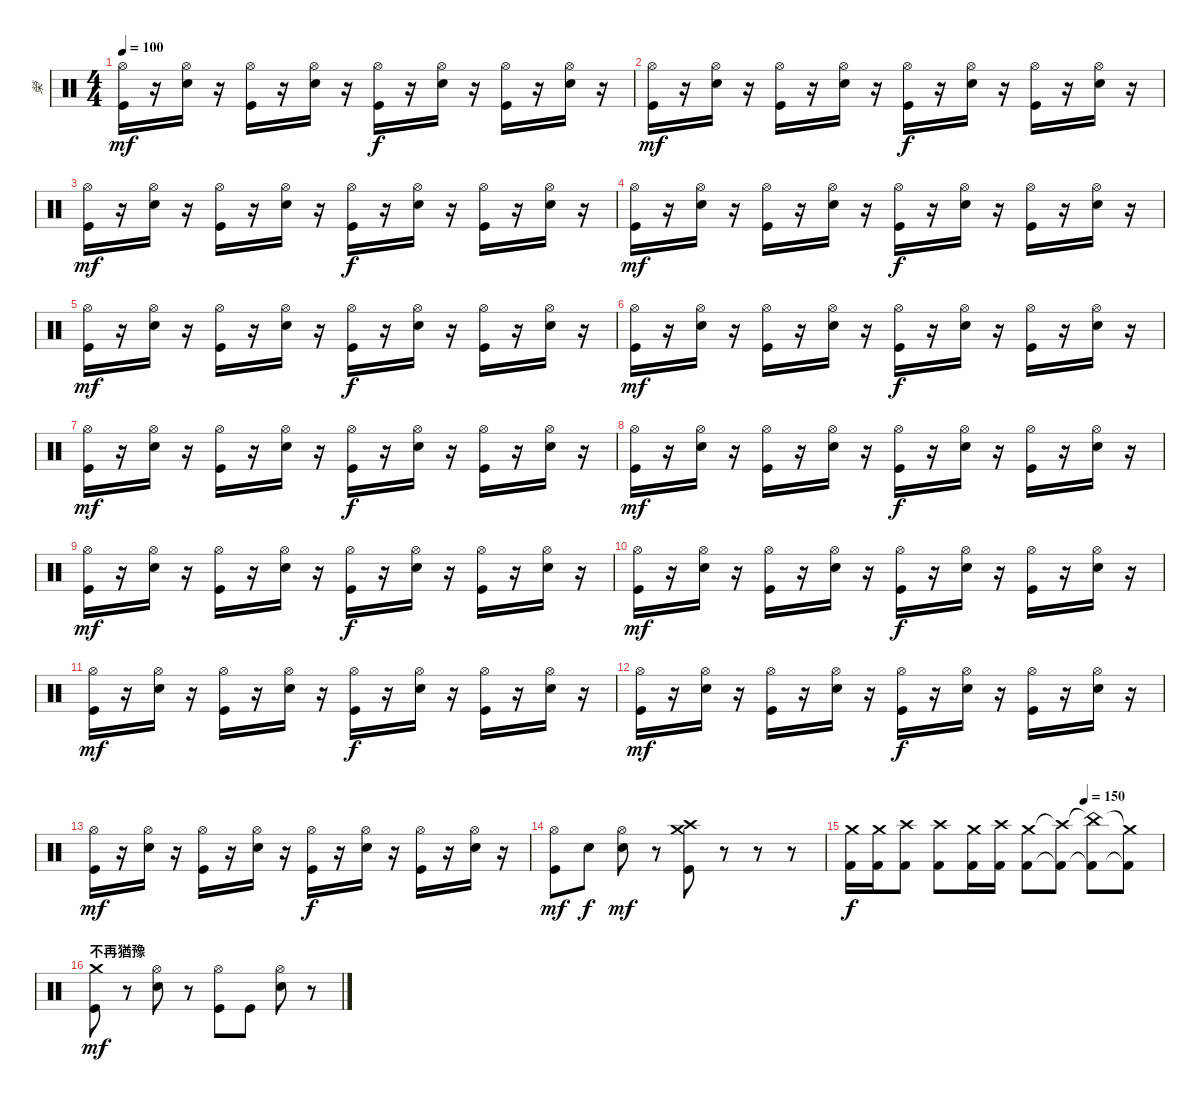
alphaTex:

\track ("榮" "榮") {instrument percussion}
\staff {score}
\articulation defaults
\ts (4 4)
\tempo 100
\clef neutral
\ks c
("Hi-Hat (open)" "Kick (hit)").16{dy mf} r.16 ("Hi-Hat (open)" "Snare (hit) 2").16 r.16 ("Hi-Hat (open)" "Kick (hit)").16 r.16 ("Hi-Hat (open)" "Snare (hit) 2").16 r.16 ("Hi-Hat (open)" "Kick (hit)").16{dy f} r.16 ("Hi-Hat (open)" "Snare (hit) 2").16 r.16 ("Hi-Hat (open)" "Kick (hit)").16 r.16 ("Hi-Hat (open)" "Snare (hit) 2").16 r.16 |
("Hi-Hat (open)" "Kick (hit)").16{dy mf} r.16 ("Hi-Hat (open)" "Snare (hit) 2").16 r.16 ("Hi-Hat (open)" "Kick (hit)").16 r.16 ("Hi-Hat (open)" "Snare (hit) 2").16 r.16 ("Hi-Hat (open)" "Kick (hit)").16{dy f} r.16 ("Hi-Hat (open)" "Snare (hit) 2").16 r.16 ("Hi-Hat (open)" "Kick (hit)").16 r.16 ("Hi-Hat (open)" "Snare (hit) 2").16 r.16 |
("Hi-Hat (open)" "Kick (hit)").16{dy mf} r.16 ("Hi-Hat (open)" "Snare (hit) 2").16 r.16 ("Hi-Hat (open)" "Kick (hit)").16 r.16 ("Hi-Hat (open)" "Snare (hit) 2").16 r.16 ("Hi-Hat (open)" "Kick (hit)").16{dy f} r.16 ("Hi-Hat (open)" "Snare (hit) 2").16 r.16 ("Hi-Hat (open)" "Kick (hit)").16 r.16 ("Hi-Hat (open)" "Snare (hit) 2").16 r.16 |
("Hi-Hat (open)" "Kick (hit)").16{dy mf} r.16 ("Hi-Hat (open)" "Snare (hit) 2").16 r.16 ("Hi-Hat (open)" "Kick (hit)").16 r.16 ("Hi-Hat (open)" "Snare (hit) 2").16 r.16 ("Hi-Hat (open)" "Kick (hit)").16{dy f} r.16 ("Hi-Hat (open)" "Snare (hit) 2").16 r.16 ("Hi-Hat (open)" "Kick (hit)").16 r.16 ("Hi-Hat (open)" "Snare (hit) 2").16 r.16 |
("Hi-Hat (open)" "Kick (hit)").16{dy mf} r.16 ("Hi-Hat (open)" "Snare (hit) 2").16 r.16 ("Hi-Hat (open)" "Kick (hit)").16 r.16 ("Hi-Hat (open)" "Snare (hit) 2").16 r.16 ("Hi-Hat (open)" "Kick (hit)").16{dy f} r.16 ("Hi-Hat (open)" "Snare (hit) 2").16 r.16 ("Hi-Hat (open)" "Kick (hit)").16 r.16 ("Hi-Hat (open)" "Snare (hit) 2").16 r.16 |
("Hi-Hat (open)" "Kick (hit)").16{dy mf} r.16 ("Hi-Hat (open)" "Snare (hit) 2").16 r.16 ("Hi-Hat (open)" "Kick (hit)").16 r.16 ("Hi-Hat (open)" "Snare (hit) 2").16 r.16 ("Hi-Hat (open)" "Kick (hit)").16{dy f} r.16 ("Hi-Hat (open)" "Snare (hit) 2").16 r.16 ("Hi-Hat (open)" "Kick (hit)").16 r.16 ("Hi-Hat (open)" "Snare (hit) 2").16 r.16 |
("Hi-Hat (open)" "Kick (hit)").16{dy mf} r.16 ("Hi-Hat (open)" "Snare (hit) 2").16 r.16 ("Hi-Hat (open)" "Kick (hit)").16 r.16 ("Hi-Hat (open)" "Snare (hit) 2").16 r.16 ("Hi-Hat (open)" "Kick (hit)").16{dy f} r.16 ("Hi-Hat (open)" "Snare (hit) 2").16 r.16 ("Hi-Hat (open)" "Kick (hit)").16 r.16 ("Hi-Hat (open)" "Snare (hit) 2").16 r.16 |
("Hi-Hat (open)" "Kick (hit)").16{dy mf} r.16 ("Hi-Hat (open)" "Snare (hit) 2").16 r.16 ("Hi-Hat (open)" "Kick (hit)").16 r.16 ("Hi-Hat (open)" "Snare (hit) 2").16 r.16 ("Hi-Hat (open)" "Kick (hit)").16{dy f} r.16 ("Hi-Hat (open)" "Snare (hit) 2").16 r.16 ("Hi-Hat (open)" "Kick (hit)").16 r.16 ("Hi-Hat (open)" "Snare (hit) 2").16 r.16 |
("Hi-Hat (open)" "Kick (hit)").16{dy mf} r.16 ("Hi-Hat (open)" "Snare (hit) 2").16 r.16 ("Hi-Hat (open)" "Kick (hit)").16 r.16 ("Hi-Hat (open)" "Snare (hit) 2").16 r.16 ("Hi-Hat (open)" "Kick (hit)").16{dy f} r.16 ("Hi-Hat (open)" "Snare (hit) 2").16 r.16 ("Hi-Hat (open)" "Kick (hit)").16 r.16 ("Hi-Hat (open)" "Snare (hit) 2").16 r.16 |
("Hi-Hat (open)" "Kick (hit)").16{dy mf} r.16 ("Hi-Hat (open)" "Snare (hit) 2").16 r.16 ("Hi-Hat (open)" "Kick (hit)").16 r.16 ("Hi-Hat (open)" "Snare (hit) 2").16 r.16 ("Hi-Hat (open)" "Kick (hit)").16{dy f} r.16 ("Hi-Hat (open)" "Snare (hit) 2").16 r.16 ("Hi-Hat (open)" "Kick (hit)").16 r.16 ("Hi-Hat (open)" "Snare (hit) 2").16 r.16 |
("Hi-Hat (open)" "Kick (hit)").16{dy mf} r.16 ("Hi-Hat (open)" "Snare (hit) 2").16 r.16 ("Hi-Hat (open)" "Kick (hit)").16 r.16 ("Hi-Hat (open)" "Snare (hit) 2").16 r.16 ("Hi-Hat (open)" "Kick (hit)").16{dy f} r.16 ("Hi-Hat (open)" "Snare (hit) 2").16 r.16 ("Hi-Hat (open)" "Kick (hit)").16 r.16 ("Hi-Hat (open)" "Snare (hit) 2").16 r.16 |
("Hi-Hat (open)" "Kick (hit)").16{dy mf} r.16 ("Hi-Hat (open)" "Snare (hit) 2").16 r.16 ("Hi-Hat (open)" "Kick (hit)").16 r.16 ("Hi-Hat (open)" "Snare (hit) 2").16 r.16 ("Hi-Hat (open)" "Kick (hit)").16{dy f} r.16 ("Hi-Hat (open)" "Snare (hit) 2").16 r.16 ("Hi-Hat (open)" "Kick (hit)").16 r.16 ("Hi-Hat (open)" "Snare (hit) 2").16 r.16 |
("Hi-Hat (open)" "Kick (hit)").16{dy mf} r.16 ("Hi-Hat (open)" "Snare (hit) 2").16 r.16 ("Hi-Hat (open)" "Kick (hit)").16 r.16 ("Hi-Hat (open)" "Snare (hit) 2").16 r.16 ("Hi-Hat (open)" "Kick (hit)").16{dy f} r.16 ("Hi-Hat (open)" "Snare (hit) 2").16 r.16 ("Hi-Hat (open)" "Kick (hit)").16 r.16 ("Hi-Hat (open)" "Snare (hit) 2").16 r.16 |
("Hi-Hat (open)" "Kick (hit)").8{dy mf} "Snare (hit) 2".8{dy f} ("Hi-Hat (open)" "Snare (hit) 2").8{dy mf} r.8 ("Crash medium (hit)" "Crash high (hit)" "Kick (hit)").8 r.8 r.8 r.8 |
\tempo (150 0.75)
("Crash medium (hit)" "Kick (hit) 2").16{dy f} ("Crash medium (hit)" "Kick (hit) 2").16 ("Crash high (hit)" "Kick (hit) 2").8 ("Crash high (hit)" "Kick (hit) 2").8 ("Crash medium (hit)" "Kick (hit) 2").16 ("Crash high (hit)" "Kick (hit) 2").16 ("Crash medium (hit)" "Kick (hit) 2").8 ("Crash high (hit)"{t} "Kick (hit) 2"{t}).8 ("China (hit)"{t} "Kick (hit) 2"{t}).8 ("Crash medium (hit)"{t} "Kick (hit) 2"{t}).8 |
\section ("" "不再猶豫")
("Crash medium (hit)" "Kick (hit)").8{dy mf} r.8 ("Hi-Hat (open)" "Snare (hit) 2").8 r.8 ("Hi-Hat (open)" "Kick (hit)").8 "Kick (hit)".8 ("Hi-Hat (open)" "Snare (hit) 2").8 r.8
